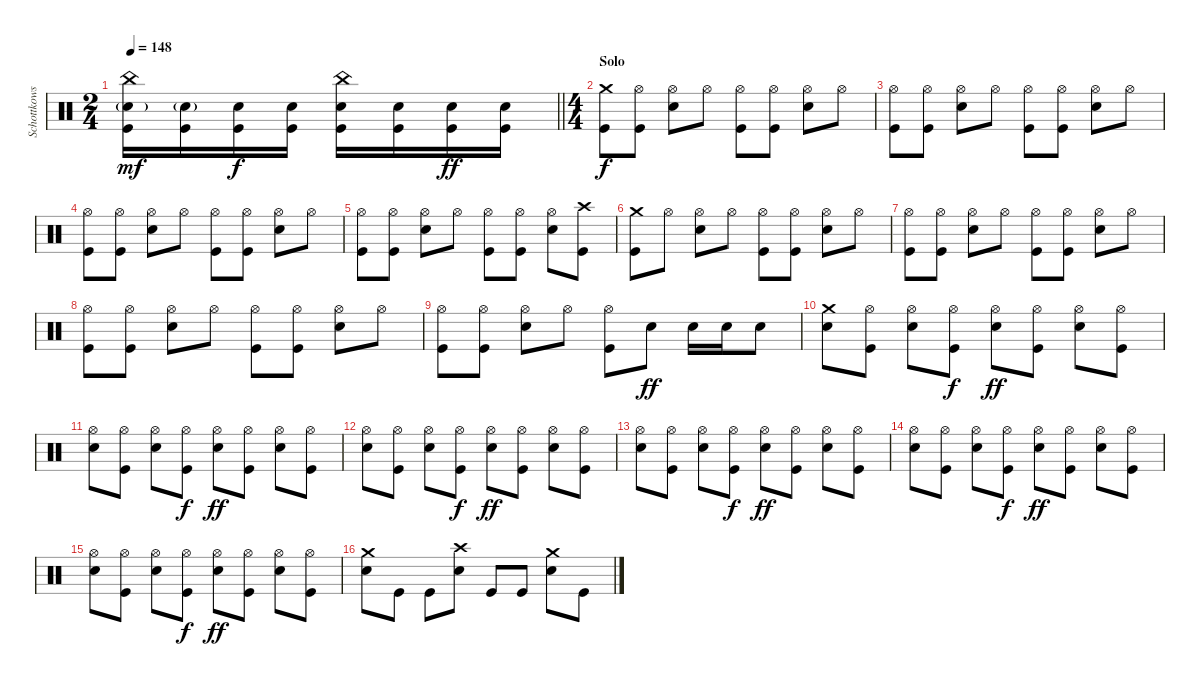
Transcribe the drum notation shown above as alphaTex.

\track ("Schottkowski" "Schottkows") {instrument percussion}
\staff {score}
\articulation defaults
\ts (2 4)
\tempo 148
\clef neutral
\barLineRight lightlight
\ks c
("China (hit)" "Electric Snare (hit)"{g} "Kick (hit)").16{dy mf} ("Electric Snare (hit)"{g} "Kick (hit)").16 ("Electric Snare (hit)" "Kick (hit)").16{dy f} ("Electric Snare (hit)" "Kick (hit)").16 ("China (hit)" "Electric Snare (hit)" "Kick (hit)").16 ("Electric Snare (hit)" "Kick (hit)").16 ("Electric Snare (hit)" "Kick (hit)").16{dy ff} ("Electric Snare (hit)" "Kick (hit)").16 |
\ts (4 4)
\section ("" "Solo")
("Crash medium (hit)" "Kick (hit)").8{dy f} ("Hi-Hat (open)" "Kick (hit)").8 ("Hi-Hat (open)" "Electric Snare (hit)").8 "Hi-Hat (open)".8 ("Hi-Hat (open)" "Kick (hit)").8 ("Hi-Hat (open)" "Kick (hit)").8 ("Hi-Hat (open)" "Electric Snare (hit)").8 "Hi-Hat (open)".8 |
("Hi-Hat (open)" "Kick (hit)").8 ("Hi-Hat (open)" "Kick (hit)").8 ("Hi-Hat (open)" "Electric Snare (hit)").8 "Hi-Hat (open)".8 ("Hi-Hat (open)" "Kick (hit)").8 ("Hi-Hat (open)" "Kick (hit)").8 ("Hi-Hat (open)" "Electric Snare (hit)").8 "Hi-Hat (open)".8 |
("Hi-Hat (open)" "Kick (hit)").8 ("Hi-Hat (open)" "Kick (hit)").8 ("Hi-Hat (open)" "Electric Snare (hit)").8 "Hi-Hat (open)".8 ("Hi-Hat (open)" "Kick (hit)").8 ("Hi-Hat (open)" "Kick (hit)").8 ("Hi-Hat (open)" "Electric Snare (hit)").8 "Hi-Hat (open)".8 |
("Hi-Hat (open)" "Kick (hit)").8 ("Hi-Hat (open)" "Kick (hit)").8 ("Hi-Hat (open)" "Electric Snare (hit)").8 "Hi-Hat (open)".8 ("Hi-Hat (open)" "Kick (hit)").8 ("Hi-Hat (open)" "Kick (hit)").8 ("Hi-Hat (open)" "Electric Snare (hit)").8 ("Crash high (hit)" "Kick (hit)").8 |
("Crash medium (hit)" "Kick (hit)").8 "Hi-Hat (open)".8 ("Hi-Hat (open)" "Electric Snare (hit)").8 "Hi-Hat (open)".8 ("Hi-Hat (open)" "Kick (hit)").8 ("Hi-Hat (open)" "Kick (hit)").8 ("Hi-Hat (open)" "Electric Snare (hit)").8 "Hi-Hat (open)".8 |
("Hi-Hat (open)" "Kick (hit)").8 ("Hi-Hat (open)" "Kick (hit)").8 ("Hi-Hat (open)" "Electric Snare (hit)").8 "Hi-Hat (open)".8 ("Hi-Hat (open)" "Kick (hit)").8 ("Hi-Hat (open)" "Kick (hit)").8 ("Hi-Hat (open)" "Electric Snare (hit)").8 "Hi-Hat (open)".8 |
("Hi-Hat (open)" "Kick (hit)").8 ("Hi-Hat (open)" "Kick (hit)").8 ("Hi-Hat (open)" "Electric Snare (hit)").8 "Hi-Hat (open)".8 ("Hi-Hat (open)" "Kick (hit)").8 ("Hi-Hat (open)" "Kick (hit)").8 ("Hi-Hat (open)" "Electric Snare (hit)").8 "Hi-Hat (open)".8 |
("Hi-Hat (open)" "Kick (hit)").8 ("Hi-Hat (open)" "Kick (hit)").8 ("Hi-Hat (open)" "Electric Snare (hit)").8 "Hi-Hat (open)".8 ("Hi-Hat (open)" "Kick (hit)").8 "Electric Snare (hit)".8{dy ff} "Electric Snare (hit)".16 "Electric Snare (hit)".16 "Electric Snare (hit)".8 |
("Crash medium (hit)" "Electric Snare (hit)").8 ("Hi-Hat (open)" "Kick (hit)").8 ("Hi-Hat (open)" "Electric Snare (hit)").8 ("Hi-Hat (open)" "Kick (hit)").8{dy f} ("Hi-Hat (open)" "Electric Snare (hit)").8{dy ff} ("Hi-Hat (open)" "Kick (hit)").8 ("Hi-Hat (open)" "Electric Snare (hit)").8 ("Hi-Hat (open)" "Kick (hit)").8 |
("Hi-Hat (open)" "Electric Snare (hit)").8 ("Hi-Hat (open)" "Kick (hit)").8 ("Hi-Hat (open)" "Electric Snare (hit)").8 ("Hi-Hat (open)" "Kick (hit)").8{dy f} ("Hi-Hat (open)" "Electric Snare (hit)").8{dy ff} ("Hi-Hat (open)" "Kick (hit)").8 ("Hi-Hat (open)" "Electric Snare (hit)").8 ("Hi-Hat (open)" "Kick (hit)").8 |
("Hi-Hat (open)" "Electric Snare (hit)").8 ("Hi-Hat (open)" "Kick (hit)").8 ("Hi-Hat (open)" "Electric Snare (hit)").8 ("Hi-Hat (open)" "Kick (hit)").8{dy f} ("Hi-Hat (open)" "Electric Snare (hit)").8{dy ff} ("Hi-Hat (open)" "Kick (hit)").8 ("Hi-Hat (open)" "Electric Snare (hit)").8 ("Hi-Hat (open)" "Kick (hit)").8 |
("Hi-Hat (open)" "Electric Snare (hit)").8 ("Hi-Hat (open)" "Kick (hit)").8 ("Hi-Hat (open)" "Electric Snare (hit)").8 ("Hi-Hat (open)" "Kick (hit)").8{dy f} ("Hi-Hat (open)" "Electric Snare (hit)").8{dy ff} ("Hi-Hat (open)" "Kick (hit)").8 ("Hi-Hat (open)" "Electric Snare (hit)").8 ("Hi-Hat (open)" "Kick (hit)").8 |
("Hi-Hat (open)" "Electric Snare (hit)").8 ("Hi-Hat (open)" "Kick (hit)").8 ("Hi-Hat (open)" "Electric Snare (hit)").8 ("Hi-Hat (open)" "Kick (hit)").8{dy f} ("Hi-Hat (open)" "Electric Snare (hit)").8{dy ff} ("Hi-Hat (open)" "Kick (hit)").8 ("Hi-Hat (open)" "Electric Snare (hit)").8 ("Hi-Hat (open)" "Kick (hit)").8 |
("Hi-Hat (open)" "Electric Snare (hit)").8 ("Hi-Hat (open)" "Kick (hit)").8 ("Hi-Hat (open)" "Electric Snare (hit)").8 ("Hi-Hat (open)" "Kick (hit)").8{dy f} ("Hi-Hat (open)" "Electric Snare (hit)").8{dy ff} ("Hi-Hat (open)" "Kick (hit)").8 ("Hi-Hat (open)" "Electric Snare (hit)").8 ("Hi-Hat (open)" "Kick (hit)").8 |
("Crash medium (hit)" "Electric Snare (hit)").8 "Kick (hit)".8 "Kick (hit)".8 ("Crash high (hit)" "Electric Snare (hit)").8 "Kick (hit)".8 "Kick (hit)".8 ("Crash medium (hit)" "Electric Snare (hit)").8 "Kick (hit)".8
